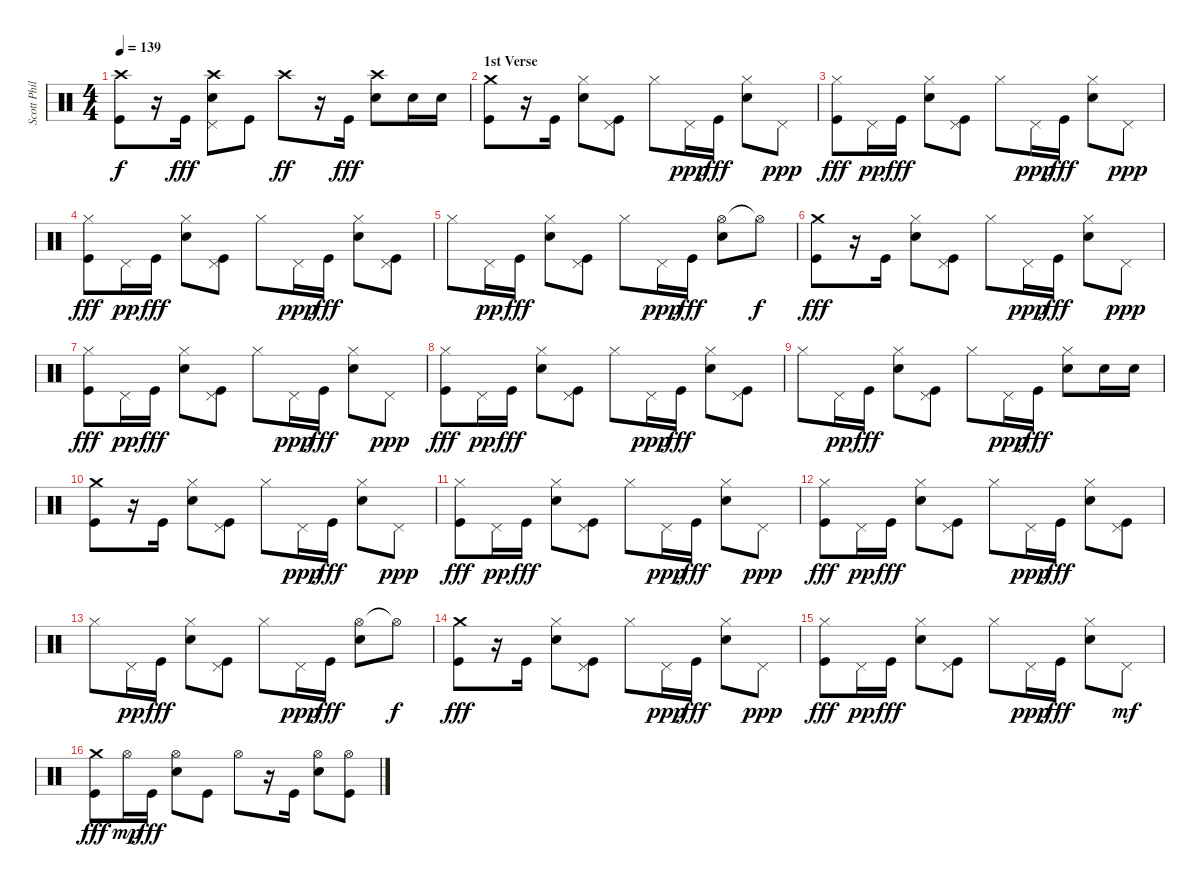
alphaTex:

\track ("Scott Phillips - Drums" "Scott Phil") {instrument percussion}
\staff {score}
\articulation defaults
\ts (4 4)
\tempo 139
\clef neutral
\ks c
("Crash high (hit)" "Kick (hit)"{t}).8{dy f} r.16 "Kick (hit)".16{dy fff} ("Pedal Hi-Hat (hit)" "Crash high (hit)" "Electric Snare (hit)").8 "Kick (hit)".8 "Crash high (hit)".8{dy ff} r.16 "Kick (hit)".16{dy fff} ("Crash high (hit)" "Electric Snare (hit)").8 "Electric Snare (hit)".16 "Electric Snare (hit)".16 |
\section ("" "1st Verse")
("Crash medium (hit)" "Kick (hit)").8 r.16 "Kick (hit)".16 ("Hi-Hat (closed)" "Electric Snare (hit)").8 ("Pedal Hi-Hat (hit)" "Kick (hit)").8 "Hi-Hat (closed)".8 "Pedal Hi-Hat (hit)".16{dy ppp} "Kick (hit)".16{dy fff} ("Hi-Hat (closed)" "Electric Snare (hit)").8 "Pedal Hi-Hat (hit)".8{dy ppp} |
("Hi-Hat (closed)" "Kick (hit)").8{dy fff} "Pedal Hi-Hat (hit)".16{dy pp} "Kick (hit)".16{dy fff} ("Hi-Hat (closed)" "Electric Snare (hit)").8 ("Pedal Hi-Hat (hit)" "Kick (hit)").8 "Hi-Hat (closed)".8 "Pedal Hi-Hat (hit)".16{dy ppp} "Kick (hit)".16{dy fff} ("Hi-Hat (closed)" "Electric Snare (hit)").8 "Pedal Hi-Hat (hit)".8{dy ppp} |
("Hi-Hat (closed)" "Kick (hit)").8{dy fff} "Pedal Hi-Hat (hit)".16{dy pp} "Kick (hit)".16{dy fff} ("Hi-Hat (closed)" "Electric Snare (hit)").8 ("Pedal Hi-Hat (hit)" "Kick (hit)").8 "Hi-Hat (closed)".8 "Pedal Hi-Hat (hit)".16{dy ppp} "Kick (hit)".16{dy fff} ("Hi-Hat (closed)" "Electric Snare (hit)").8 ("Pedal Hi-Hat (hit)" "Kick (hit)").8 |
"Hi-Hat (closed)".8 "Pedal Hi-Hat (hit)".16{dy pp} "Kick (hit)".16{dy fff} ("Hi-Hat (closed)" "Electric Snare (hit)").8 ("Pedal Hi-Hat (hit)" "Kick (hit)").8 "Hi-Hat (closed)".8 "Pedal Hi-Hat (hit)".16{dy ppp} "Kick (hit)".16{dy fff} ("Hi-Hat (open)" "Electric Snare (hit)").8 "Hi-Hat (open)"{t}.8{dy f} |
("Crash medium (hit)" "Kick (hit)").8{dy fff} r.16 "Kick (hit)".16 ("Hi-Hat (closed)" "Electric Snare (hit)").8 ("Pedal Hi-Hat (hit)" "Kick (hit)").8 "Hi-Hat (closed)".8 "Pedal Hi-Hat (hit)".16{dy ppp} "Kick (hit)".16{dy fff} ("Hi-Hat (closed)" "Electric Snare (hit)").8 "Pedal Hi-Hat (hit)".8{dy ppp} |
("Hi-Hat (closed)" "Kick (hit)").8{dy fff} "Pedal Hi-Hat (hit)".16{dy pp} "Kick (hit)".16{dy fff} ("Hi-Hat (closed)" "Electric Snare (hit)").8 ("Pedal Hi-Hat (hit)" "Kick (hit)").8 "Hi-Hat (closed)".8 "Pedal Hi-Hat (hit)".16{dy ppp} "Kick (hit)".16{dy fff} ("Hi-Hat (closed)" "Electric Snare (hit)").8 "Pedal Hi-Hat (hit)".8{dy ppp} |
("Hi-Hat (closed)" "Kick (hit)").8{dy fff} "Pedal Hi-Hat (hit)".16{dy pp} "Kick (hit)".16{dy fff} ("Hi-Hat (closed)" "Electric Snare (hit)").8 ("Pedal Hi-Hat (hit)" "Kick (hit)").8 "Hi-Hat (closed)".8 "Pedal Hi-Hat (hit)".16{dy ppp} "Kick (hit)".16{dy fff} ("Hi-Hat (closed)" "Electric Snare (hit)").8 ("Pedal Hi-Hat (hit)" "Kick (hit)").8 |
"Hi-Hat (closed)".8 "Pedal Hi-Hat (hit)".16{dy pp} "Kick (hit)".16{dy fff} ("Hi-Hat (closed)" "Electric Snare (hit)").8 ("Pedal Hi-Hat (hit)" "Kick (hit)").8 "Hi-Hat (closed)".8 "Pedal Hi-Hat (hit)".16{dy ppp} "Kick (hit)".16{dy fff} ("Hi-Hat (closed)" "Electric Snare (hit)").8 "Electric Snare (hit)".16 "Electric Snare (hit)".16 |
("Crash medium (hit)" "Kick (hit)").8 r.16 "Kick (hit)".16 ("Hi-Hat (closed)" "Electric Snare (hit)").8 ("Pedal Hi-Hat (hit)" "Kick (hit)").8 "Hi-Hat (closed)".8 "Pedal Hi-Hat (hit)".16{dy ppp} "Kick (hit)".16{dy fff} ("Hi-Hat (closed)" "Electric Snare (hit)").8 "Pedal Hi-Hat (hit)".8{dy ppp} |
("Hi-Hat (closed)" "Kick (hit)").8{dy fff} "Pedal Hi-Hat (hit)".16{dy pp} "Kick (hit)".16{dy fff} ("Hi-Hat (closed)" "Electric Snare (hit)").8 ("Pedal Hi-Hat (hit)" "Kick (hit)").8 "Hi-Hat (closed)".8 "Pedal Hi-Hat (hit)".16{dy ppp} "Kick (hit)".16{dy fff} ("Hi-Hat (closed)" "Electric Snare (hit)").8 "Pedal Hi-Hat (hit)".8{dy ppp} |
("Hi-Hat (closed)" "Kick (hit)").8{dy fff} "Pedal Hi-Hat (hit)".16{dy pp} "Kick (hit)".16{dy fff} ("Hi-Hat (closed)" "Electric Snare (hit)").8 ("Pedal Hi-Hat (hit)" "Kick (hit)").8 "Hi-Hat (closed)".8 "Pedal Hi-Hat (hit)".16{dy ppp} "Kick (hit)".16{dy fff} ("Hi-Hat (closed)" "Electric Snare (hit)").8 ("Pedal Hi-Hat (hit)" "Kick (hit)").8 |
"Hi-Hat (closed)".8 "Pedal Hi-Hat (hit)".16{dy pp} "Kick (hit)".16{dy fff} ("Hi-Hat (closed)" "Electric Snare (hit)").8 ("Pedal Hi-Hat (hit)" "Kick (hit)").8 "Hi-Hat (closed)".8 "Pedal Hi-Hat (hit)".16{dy ppp} "Kick (hit)".16{dy fff} ("Hi-Hat (open)" "Electric Snare (hit)").8 "Hi-Hat (open)"{t}.8{dy f} |
("Crash medium (hit)" "Kick (hit)").8{dy fff} r.16 "Kick (hit)".16 ("Hi-Hat (closed)" "Electric Snare (hit)").8 ("Pedal Hi-Hat (hit)" "Kick (hit)").8 "Hi-Hat (closed)".8 "Pedal Hi-Hat (hit)".16{dy ppp} "Kick (hit)".16{dy fff} ("Hi-Hat (closed)" "Electric Snare (hit)").8 "Pedal Hi-Hat (hit)".8{dy ppp} |
("Hi-Hat (closed)" "Kick (hit)").8{dy fff} "Pedal Hi-Hat (hit)".16{dy pp} "Kick (hit)".16{dy fff} ("Hi-Hat (closed)" "Electric Snare (hit)").8 ("Pedal Hi-Hat (hit)" "Kick (hit)").8 "Hi-Hat (closed)".8 "Pedal Hi-Hat (hit)".16{dy ppp} "Kick (hit)".16{dy fff} ("Hi-Hat (closed)" "Electric Snare (hit)").8 "Pedal Hi-Hat (hit)".8{dy mf} |
("Crash medium (hit)" "Kick (hit)").8{dy fff} "Hi-Hat (open)".16{dy mp} "Kick (hit)".16{dy fff} ("Hi-Hat (open)" "Electric Snare (hit)").8 "Kick (hit)".8 "Hi-Hat (open)".8 r.16 "Kick (hit)".16 ("Hi-Hat (open)" "Electric Snare (hit)").8 ("Hi-Hat (open)" "Kick (hit)").8
